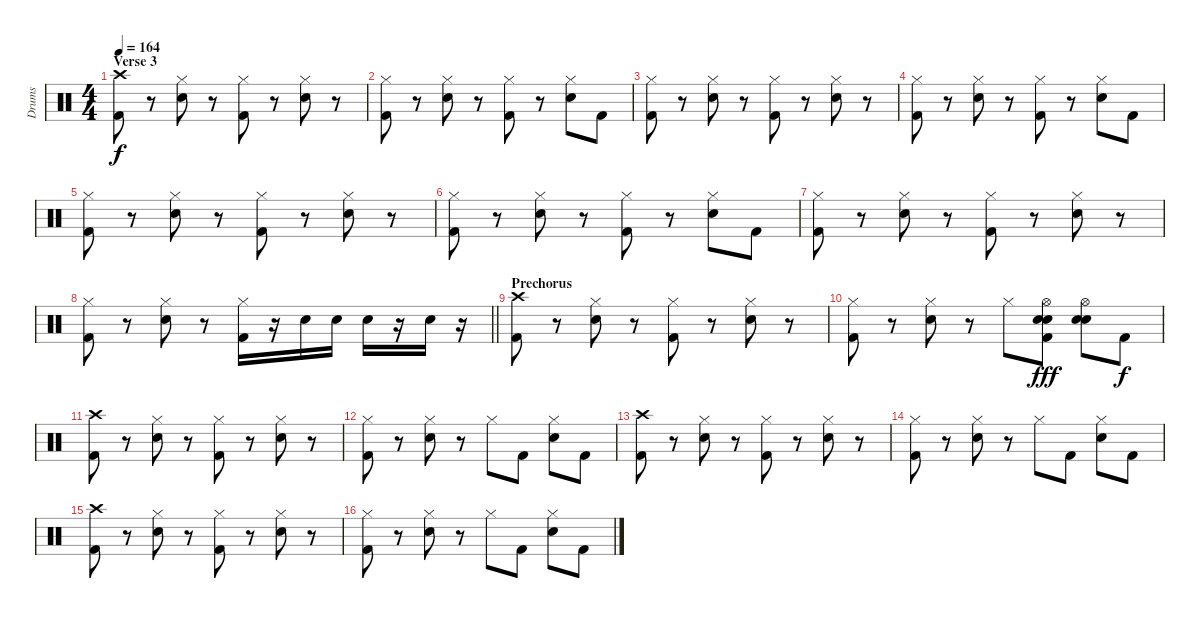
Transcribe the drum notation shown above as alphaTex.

\track ("Drums" "Drums") {instrument percussion}
\staff {score}
\articulation defaults
\ts (4 4)
\section ("" "Verse 3")
\tempo 164
\clef neutral
\ks c
("Crash high (hit)" "Kick (hit) 2").8{dy f} r.8 ("Hi-Hat (closed)" "Snare (hit) 2").8 r.8 ("Hi-Hat (closed)" "Kick (hit) 2").8 r.8 ("Hi-Hat (closed)" "Snare (hit) 2").8 r.8 |
("Hi-Hat (closed)" "Kick (hit) 2").8 r.8 ("Hi-Hat (closed)" "Snare (hit) 2").8 r.8 ("Hi-Hat (closed)" "Kick (hit) 2").8 r.8 ("Hi-Hat (closed)" "Snare (hit) 2").8 "Kick (hit) 2".8 |
("Hi-Hat (closed)" "Kick (hit) 2").8 r.8 ("Hi-Hat (closed)" "Snare (hit) 2").8 r.8 ("Hi-Hat (closed)" "Kick (hit) 2").8 r.8 ("Hi-Hat (closed)" "Snare (hit) 2").8 r.8 |
("Hi-Hat (closed)" "Kick (hit) 2").8 r.8 ("Hi-Hat (closed)" "Snare (hit) 2").8 r.8 ("Hi-Hat (closed)" "Kick (hit) 2").8 r.8 ("Hi-Hat (closed)" "Snare (hit) 2").8 "Kick (hit) 2".8 |
("Hi-Hat (closed)" "Kick (hit) 2").8 r.8 ("Hi-Hat (closed)" "Snare (hit) 2").8 r.8 ("Hi-Hat (closed)" "Kick (hit) 2").8 r.8 ("Hi-Hat (closed)" "Snare (hit) 2").8 r.8 |
("Hi-Hat (closed)" "Kick (hit) 2").8 r.8 ("Hi-Hat (closed)" "Snare (hit) 2").8 r.8 ("Hi-Hat (closed)" "Kick (hit) 2").8 r.8 ("Hi-Hat (closed)" "Snare (hit) 2").8 "Kick (hit) 2".8 |
("Hi-Hat (closed)" "Kick (hit) 2").8 r.8 ("Hi-Hat (closed)" "Snare (hit) 2").8 r.8 ("Hi-Hat (closed)" "Kick (hit) 2").8 r.8 ("Hi-Hat (closed)" "Snare (hit) 2").8 r.8 |
\barLineRight lightlight
("Hi-Hat (closed)" "Kick (hit) 2").8 r.8 ("Hi-Hat (closed)" "Snare (hit) 2").8 r.8 ("Hi-Hat (closed)" "Kick (hit) 2").16 r.16 "Snare (hit) 2".16 "Snare (hit) 2".16 "Snare (hit) 2".16 r.16 "Snare (hit) 2".16 r.16 |
\section ("" "Prechorus")
("Crash high (hit)" "Kick (hit) 2").8 r.8 ("Hi-Hat (closed)" "Snare (hit) 2").8 r.8 ("Hi-Hat (closed)" "Kick (hit) 2").8 r.8 ("Hi-Hat (closed)" "Snare (hit) 2").8 r.8 |
("Hi-Hat (closed)" "Kick (hit) 2").8 r.8 ("Hi-Hat (closed)" "Snare (hit) 2").8 r.8 "Hi-Hat (closed)".8 ("Hi-Hat (open)" "Snare (hit) 2" "Snare (hit) 2" "Kick (hit) 2").8{dy fff} ("Hi-Hat (open)" "Snare (hit) 2" "Snare (hit) 2").8 "Kick (hit) 2".8{dy f} |
("Crash high (hit)" "Kick (hit) 2").8 r.8 ("Hi-Hat (closed)" "Snare (hit) 2").8 r.8 ("Hi-Hat (closed)" "Kick (hit) 2").8 r.8 ("Hi-Hat (closed)" "Snare (hit) 2").8 r.8 |
("Hi-Hat (closed)" "Kick (hit) 2").8 r.8 ("Hi-Hat (closed)" "Snare (hit) 2").8 r.8 "Hi-Hat (closed)".8 "Kick (hit) 2".8 ("Hi-Hat (closed)" "Snare (hit) 2").8 "Kick (hit) 2".8 |
("Crash high (hit)" "Kick (hit) 2").8 r.8 ("Hi-Hat (closed)" "Snare (hit) 2").8 r.8 ("Hi-Hat (closed)" "Kick (hit) 2").8 r.8 ("Hi-Hat (closed)" "Snare (hit) 2").8 r.8 |
("Hi-Hat (closed)" "Kick (hit) 2").8 r.8 ("Hi-Hat (closed)" "Snare (hit) 2").8 r.8 "Hi-Hat (closed)".8 "Kick (hit) 2".8 ("Hi-Hat (closed)" "Snare (hit) 2").8 "Kick (hit) 2".8 |
("Crash high (hit)" "Kick (hit) 2").8 r.8 ("Hi-Hat (closed)" "Snare (hit) 2").8 r.8 ("Hi-Hat (closed)" "Kick (hit) 2").8 r.8 ("Hi-Hat (closed)" "Snare (hit) 2").8 r.8 |
("Hi-Hat (closed)" "Kick (hit) 2").8 r.8 ("Hi-Hat (closed)" "Snare (hit) 2").8 r.8 "Hi-Hat (closed)".8 "Kick (hit) 2".8 ("Hi-Hat (closed)" "Snare (hit) 2").8 "Kick (hit) 2".8
